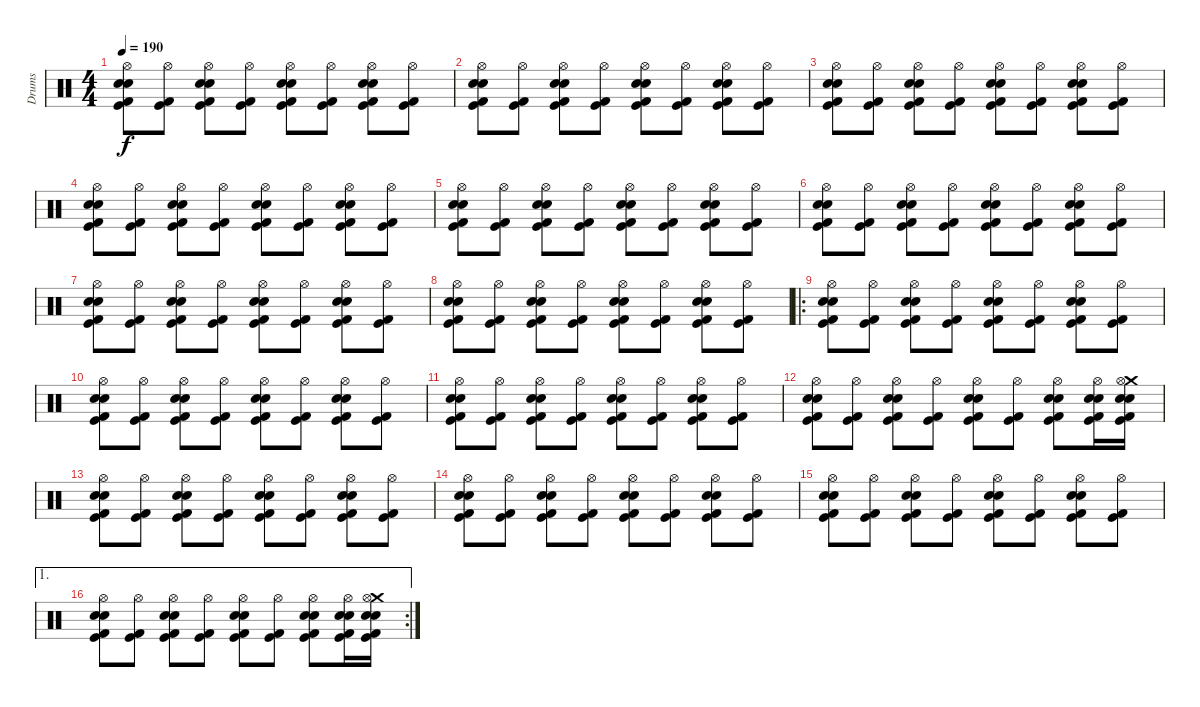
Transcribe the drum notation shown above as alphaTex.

\track ("Drums" "Drums") {instrument percussion}
\staff {score}
\articulation defaults
\ts (4 4)
\tempo 190
\clef neutral
\ks c
("Hi-Hat (open)" "Kick (hit) 2" "Snare (hit) 2" "Electric Snare (hit)" "Kick (hit)").8{dy f} ("Hi-Hat (open)" "Kick (hit) 2" "Kick (hit)").8 ("Snare (hit) 2" "Hi-Hat (open)" "Electric Snare (hit)" "Kick (hit)" "Kick (hit) 2").8 ("Hi-Hat (open)" "Kick (hit) 2" "Kick (hit)").8 ("Snare (hit) 2" "Hi-Hat (open)" "Electric Snare (hit)" "Kick (hit)" "Kick (hit) 2").8 ("Hi-Hat (open)" "Kick (hit) 2" "Kick (hit)").8 ("Snare (hit) 2" "Hi-Hat (open)" "Electric Snare (hit)" "Kick (hit)" "Kick (hit) 2").8 ("Hi-Hat (open)" "Kick (hit) 2" "Kick (hit)").8 |
("Hi-Hat (open)" "Kick (hit) 2" "Snare (hit) 2" "Electric Snare (hit)" "Kick (hit)").8 ("Hi-Hat (open)" "Kick (hit) 2" "Kick (hit)").8 ("Snare (hit) 2" "Hi-Hat (open)" "Electric Snare (hit)" "Kick (hit)" "Kick (hit) 2").8 ("Hi-Hat (open)" "Kick (hit) 2" "Kick (hit)").8 ("Snare (hit) 2" "Hi-Hat (open)" "Electric Snare (hit)" "Kick (hit)" "Kick (hit) 2").8 ("Hi-Hat (open)" "Kick (hit) 2" "Kick (hit)").8 ("Snare (hit) 2" "Hi-Hat (open)" "Electric Snare (hit)" "Kick (hit)" "Kick (hit) 2").8 ("Hi-Hat (open)" "Kick (hit) 2" "Kick (hit)").8 |
("Hi-Hat (open)" "Kick (hit) 2" "Snare (hit) 2" "Electric Snare (hit)" "Kick (hit)").8 ("Hi-Hat (open)" "Kick (hit) 2" "Kick (hit)").8 ("Snare (hit) 2" "Hi-Hat (open)" "Electric Snare (hit)" "Kick (hit)" "Kick (hit) 2").8 ("Hi-Hat (open)" "Kick (hit) 2" "Kick (hit)").8 ("Snare (hit) 2" "Hi-Hat (open)" "Electric Snare (hit)" "Kick (hit)" "Kick (hit) 2").8 ("Hi-Hat (open)" "Kick (hit) 2" "Kick (hit)").8 ("Snare (hit) 2" "Hi-Hat (open)" "Electric Snare (hit)" "Kick (hit)" "Kick (hit) 2").8 ("Hi-Hat (open)" "Kick (hit) 2" "Kick (hit)").8 |
("Hi-Hat (open)" "Kick (hit) 2" "Snare (hit) 2" "Electric Snare (hit)" "Kick (hit)").8 ("Hi-Hat (open)" "Kick (hit) 2" "Kick (hit)").8 ("Snare (hit) 2" "Hi-Hat (open)" "Electric Snare (hit)" "Kick (hit)" "Kick (hit) 2").8 ("Hi-Hat (open)" "Kick (hit) 2" "Kick (hit)").8 ("Snare (hit) 2" "Hi-Hat (open)" "Electric Snare (hit)" "Kick (hit)" "Kick (hit) 2").8 ("Hi-Hat (open)" "Kick (hit) 2" "Kick (hit)").8 ("Snare (hit) 2" "Hi-Hat (open)" "Electric Snare (hit)" "Kick (hit)" "Kick (hit) 2").8 ("Hi-Hat (open)" "Kick (hit) 2" "Kick (hit)").8 |
("Hi-Hat (open)" "Kick (hit) 2" "Snare (hit) 2" "Electric Snare (hit)" "Kick (hit)").8 ("Hi-Hat (open)" "Kick (hit) 2" "Kick (hit)").8 ("Snare (hit) 2" "Hi-Hat (open)" "Electric Snare (hit)" "Kick (hit)" "Kick (hit) 2").8 ("Hi-Hat (open)" "Kick (hit) 2" "Kick (hit)").8 ("Snare (hit) 2" "Hi-Hat (open)" "Electric Snare (hit)" "Kick (hit)" "Kick (hit) 2").8 ("Hi-Hat (open)" "Kick (hit) 2" "Kick (hit)").8 ("Snare (hit) 2" "Hi-Hat (open)" "Electric Snare (hit)" "Kick (hit)" "Kick (hit) 2").8 ("Hi-Hat (open)" "Kick (hit) 2" "Kick (hit)").8 |
("Hi-Hat (open)" "Kick (hit) 2" "Snare (hit) 2" "Electric Snare (hit)" "Kick (hit)").8 ("Hi-Hat (open)" "Kick (hit) 2" "Kick (hit)").8 ("Snare (hit) 2" "Hi-Hat (open)" "Electric Snare (hit)" "Kick (hit)" "Kick (hit) 2").8 ("Hi-Hat (open)" "Kick (hit) 2" "Kick (hit)").8 ("Snare (hit) 2" "Hi-Hat (open)" "Electric Snare (hit)" "Kick (hit)" "Kick (hit) 2").8 ("Hi-Hat (open)" "Kick (hit) 2" "Kick (hit)").8 ("Snare (hit) 2" "Hi-Hat (open)" "Electric Snare (hit)" "Kick (hit)" "Kick (hit) 2").8 ("Hi-Hat (open)" "Kick (hit) 2" "Kick (hit)").8 |
("Hi-Hat (open)" "Kick (hit) 2" "Snare (hit) 2" "Electric Snare (hit)" "Kick (hit)").8 ("Hi-Hat (open)" "Kick (hit) 2" "Kick (hit)").8 ("Snare (hit) 2" "Hi-Hat (open)" "Electric Snare (hit)" "Kick (hit)" "Kick (hit) 2").8 ("Hi-Hat (open)" "Kick (hit) 2" "Kick (hit)").8 ("Snare (hit) 2" "Hi-Hat (open)" "Electric Snare (hit)" "Kick (hit)" "Kick (hit) 2").8 ("Hi-Hat (open)" "Kick (hit) 2" "Kick (hit)").8 ("Snare (hit) 2" "Hi-Hat (open)" "Electric Snare (hit)" "Kick (hit)" "Kick (hit) 2").8 ("Hi-Hat (open)" "Kick (hit) 2" "Kick (hit)").8 |
("Hi-Hat (open)" "Kick (hit) 2" "Snare (hit) 2" "Electric Snare (hit)" "Kick (hit)").8 ("Hi-Hat (open)" "Kick (hit) 2" "Kick (hit)").8 ("Snare (hit) 2" "Hi-Hat (open)" "Electric Snare (hit)" "Kick (hit)" "Kick (hit) 2").8 ("Hi-Hat (open)" "Kick (hit) 2" "Kick (hit)").8 ("Snare (hit) 2" "Hi-Hat (open)" "Electric Snare (hit)" "Kick (hit)" "Kick (hit) 2").8 ("Hi-Hat (open)" "Kick (hit) 2" "Kick (hit)").8 ("Snare (hit) 2" "Hi-Hat (open)" "Electric Snare (hit)" "Kick (hit)" "Kick (hit) 2").8 ("Hi-Hat (open)" "Kick (hit) 2" "Kick (hit)").8 |
\ro
("Hi-Hat (open)" "Kick (hit) 2" "Snare (hit) 2" "Electric Snare (hit)" "Kick (hit)").8 ("Hi-Hat (open)" "Kick (hit) 2" "Kick (hit)").8 ("Snare (hit) 2" "Hi-Hat (open)" "Electric Snare (hit)" "Kick (hit)" "Kick (hit) 2").8 ("Hi-Hat (open)" "Kick (hit) 2" "Kick (hit)").8 ("Snare (hit) 2" "Hi-Hat (open)" "Electric Snare (hit)" "Kick (hit)" "Kick (hit) 2").8 ("Hi-Hat (open)" "Kick (hit) 2" "Kick (hit)").8 ("Snare (hit) 2" "Hi-Hat (open)" "Electric Snare (hit)" "Kick (hit)" "Kick (hit) 2").8 ("Hi-Hat (open)" "Kick (hit) 2" "Kick (hit)").8 |
("Hi-Hat (open)" "Kick (hit) 2" "Snare (hit) 2" "Electric Snare (hit)" "Kick (hit)").8 ("Hi-Hat (open)" "Kick (hit) 2" "Kick (hit)").8 ("Snare (hit) 2" "Hi-Hat (open)" "Electric Snare (hit)" "Kick (hit)" "Kick (hit) 2").8 ("Hi-Hat (open)" "Kick (hit) 2" "Kick (hit)").8 ("Snare (hit) 2" "Hi-Hat (open)" "Electric Snare (hit)" "Kick (hit)" "Kick (hit) 2").8 ("Hi-Hat (open)" "Kick (hit) 2" "Kick (hit)").8 ("Snare (hit) 2" "Hi-Hat (open)" "Electric Snare (hit)" "Kick (hit)" "Kick (hit) 2").8 ("Hi-Hat (open)" "Kick (hit) 2" "Kick (hit)").8 |
("Hi-Hat (open)" "Kick (hit) 2" "Snare (hit) 2" "Electric Snare (hit)" "Kick (hit)").8 ("Hi-Hat (open)" "Kick (hit) 2" "Kick (hit)").8 ("Snare (hit) 2" "Hi-Hat (open)" "Electric Snare (hit)" "Kick (hit)" "Kick (hit) 2").8 ("Hi-Hat (open)" "Kick (hit) 2" "Kick (hit)").8 ("Snare (hit) 2" "Hi-Hat (open)" "Electric Snare (hit)" "Kick (hit)" "Kick (hit) 2").8 ("Hi-Hat (open)" "Kick (hit) 2" "Kick (hit)").8 ("Snare (hit) 2" "Hi-Hat (open)" "Electric Snare (hit)" "Kick (hit)" "Kick (hit) 2").8 ("Hi-Hat (open)" "Kick (hit) 2" "Kick (hit)").8 |
("Hi-Hat (open)" "Kick (hit) 2" "Snare (hit) 2" "Electric Snare (hit)" "Kick (hit)").8 ("Hi-Hat (open)" "Kick (hit) 2" "Kick (hit)").8 ("Snare (hit) 2" "Hi-Hat (open)" "Electric Snare (hit)" "Kick (hit)" "Kick (hit) 2").8 ("Hi-Hat (open)" "Kick (hit) 2" "Kick (hit)").8 ("Snare (hit) 2" "Hi-Hat (open)" "Electric Snare (hit)" "Kick (hit)" "Kick (hit) 2").8 ("Hi-Hat (open)" "Kick (hit) 2" "Kick (hit)").8 ("Snare (hit) 2" "Hi-Hat (open)" "Electric Snare (hit)" "Kick (hit)" "Kick (hit) 2").8 ("Electric Snare (hit)" "Hi-Hat (open)" "Kick (hit) 2" "Kick (hit)" "Snare (hit) 2").16 ("Crash medium (hit)" "Electric Snare (hit)" "Hi-Hat (open)" "Kick (hit) 2" "Kick (hit)" "Snare (hit) 2").16 |
("Hi-Hat (open)" "Kick (hit) 2" "Snare (hit) 2" "Electric Snare (hit)" "Kick (hit)").8 ("Hi-Hat (open)" "Kick (hit) 2" "Kick (hit)").8 ("Snare (hit) 2" "Hi-Hat (open)" "Electric Snare (hit)" "Kick (hit)" "Kick (hit) 2").8 ("Hi-Hat (open)" "Kick (hit) 2" "Kick (hit)").8 ("Snare (hit) 2" "Hi-Hat (open)" "Electric Snare (hit)" "Kick (hit)" "Kick (hit) 2").8 ("Hi-Hat (open)" "Kick (hit) 2" "Kick (hit)").8 ("Snare (hit) 2" "Hi-Hat (open)" "Electric Snare (hit)" "Kick (hit)" "Kick (hit) 2").8 ("Hi-Hat (open)" "Kick (hit) 2" "Kick (hit)").8 |
("Hi-Hat (open)" "Kick (hit) 2" "Snare (hit) 2" "Electric Snare (hit)" "Kick (hit)").8 ("Hi-Hat (open)" "Kick (hit) 2" "Kick (hit)").8 ("Snare (hit) 2" "Hi-Hat (open)" "Electric Snare (hit)" "Kick (hit)" "Kick (hit) 2").8 ("Hi-Hat (open)" "Kick (hit) 2" "Kick (hit)").8 ("Snare (hit) 2" "Hi-Hat (open)" "Electric Snare (hit)" "Kick (hit)" "Kick (hit) 2").8 ("Hi-Hat (open)" "Kick (hit) 2" "Kick (hit)").8 ("Snare (hit) 2" "Hi-Hat (open)" "Electric Snare (hit)" "Kick (hit)" "Kick (hit) 2").8 ("Hi-Hat (open)" "Kick (hit) 2" "Kick (hit)").8 |
("Hi-Hat (open)" "Kick (hit) 2" "Snare (hit) 2" "Electric Snare (hit)" "Kick (hit)").8 ("Hi-Hat (open)" "Kick (hit) 2" "Kick (hit)").8 ("Snare (hit) 2" "Hi-Hat (open)" "Electric Snare (hit)" "Kick (hit)" "Kick (hit) 2").8 ("Hi-Hat (open)" "Kick (hit) 2" "Kick (hit)").8 ("Snare (hit) 2" "Hi-Hat (open)" "Electric Snare (hit)" "Kick (hit)" "Kick (hit) 2").8 ("Hi-Hat (open)" "Kick (hit) 2" "Kick (hit)").8 ("Snare (hit) 2" "Hi-Hat (open)" "Electric Snare (hit)" "Kick (hit)" "Kick (hit) 2").8 ("Hi-Hat (open)" "Kick (hit) 2" "Kick (hit)").8 |
\ae 1
\rc 2
("Hi-Hat (open)" "Kick (hit) 2" "Snare (hit) 2" "Electric Snare (hit)" "Kick (hit)").8 ("Hi-Hat (open)" "Kick (hit) 2" "Kick (hit)").8 ("Snare (hit) 2" "Hi-Hat (open)" "Electric Snare (hit)" "Kick (hit)" "Kick (hit) 2").8 ("Hi-Hat (open)" "Kick (hit) 2" "Kick (hit)").8 ("Snare (hit) 2" "Hi-Hat (open)" "Electric Snare (hit)" "Kick (hit)" "Kick (hit) 2").8 ("Hi-Hat (open)" "Kick (hit) 2" "Kick (hit)").8 ("Snare (hit) 2" "Hi-Hat (open)" "Electric Snare (hit)" "Kick (hit)" "Kick (hit) 2").8 ("Electric Snare (hit)" "Hi-Hat (open)" "Kick (hit) 2" "Kick (hit)" "Snare (hit) 2").16 ("Crash medium (hit)" "Electric Snare (hit)" "Hi-Hat (open)" "Kick (hit) 2" "Kick (hit)" "Snare (hit) 2").16
